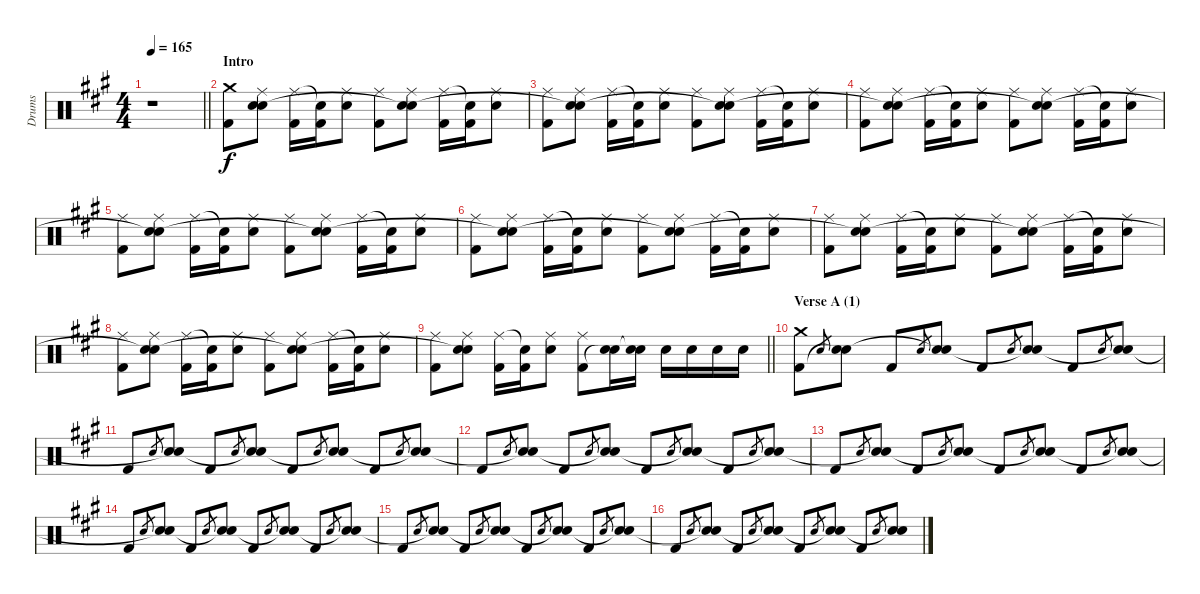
\track ("Drums" "Drums") {instrument percussion}
\staff {score}
\articulation defaults
\ts (4 4)
\tempo 165
\clef neutral
\barLineRight lightlight
\ks f#minor
r.1{dy f} |
\section ("" "Intro")
("Crash medium (hit)" "Kick (hit) 2").8 ("Ride (middle)" "Electric Snare (hit)" "Snare (hit)").8 ("Ride (middle)" "Kick (hit) 2").16 ("Snare (hit)"{t} "Kick (hit) 2").16 ("Ride (middle)" "Electric Snare (hit)").8 ("Ride (middle)" "Kick (hit) 2").8 ("Ride (middle)" "Electric Snare (hit)" "Snare (hit)"{t}).8 ("Ride (middle)" "Kick (hit) 2").16 ("Snare (hit)"{t} "Kick (hit) 2").16 ("Ride (middle)" "Electric Snare (hit)").8 |
("Ride (middle)" "Kick (hit) 2").8 ("Ride (middle)" "Electric Snare (hit)" "Snare (hit)"{t}).8 ("Ride (middle)" "Kick (hit) 2").16 ("Snare (hit)"{t} "Kick (hit) 2").16 ("Ride (middle)" "Electric Snare (hit)").8 ("Ride (middle)" "Kick (hit) 2").8 ("Ride (middle)" "Electric Snare (hit)" "Snare (hit)"{t}).8 ("Ride (middle)" "Kick (hit) 2").16 ("Snare (hit)"{t} "Kick (hit) 2").16 ("Ride (middle)" "Electric Snare (hit)").8 |
("Ride (middle)" "Kick (hit) 2").8 ("Ride (middle)" "Electric Snare (hit)" "Snare (hit)"{t}).8 ("Ride (middle)" "Kick (hit) 2").16 ("Snare (hit)"{t} "Kick (hit) 2").16 ("Ride (middle)" "Electric Snare (hit)").8 ("Ride (middle)" "Kick (hit) 2").8 ("Ride (middle)" "Electric Snare (hit)" "Snare (hit)"{t}).8 ("Ride (middle)" "Kick (hit) 2").16 ("Snare (hit)"{t} "Kick (hit) 2").16 ("Ride (middle)" "Electric Snare (hit)").8 |
("Ride (middle)" "Kick (hit) 2").8 ("Ride (middle)" "Electric Snare (hit)" "Snare (hit)"{t}).8 ("Ride (middle)" "Kick (hit) 2").16 ("Snare (hit)"{t} "Kick (hit) 2").16 ("Ride (middle)" "Electric Snare (hit)").8 ("Ride (middle)" "Kick (hit) 2").8 ("Ride (middle)" "Electric Snare (hit)" "Snare (hit)"{t}).8 ("Ride (middle)" "Kick (hit) 2").16 ("Snare (hit)"{t} "Kick (hit) 2").16 ("Ride (middle)" "Electric Snare (hit)").8 |
("Ride (middle)" "Kick (hit) 2").8 ("Ride (middle)" "Electric Snare (hit)" "Snare (hit)"{t}).8 ("Ride (middle)" "Kick (hit) 2").16 ("Snare (hit)"{t} "Kick (hit) 2").16 ("Ride (middle)" "Electric Snare (hit)").8 ("Ride (middle)" "Kick (hit) 2").8 ("Ride (middle)" "Electric Snare (hit)" "Snare (hit)"{t}).8 ("Ride (middle)" "Kick (hit) 2").16 ("Snare (hit)"{t} "Kick (hit) 2").16 ("Ride (middle)" "Electric Snare (hit)").8 |
("Ride (middle)" "Kick (hit) 2").8 ("Ride (middle)" "Electric Snare (hit)" "Snare (hit)"{t}).8 ("Ride (middle)" "Kick (hit) 2").16 ("Snare (hit)"{t} "Kick (hit) 2").16 ("Ride (middle)" "Electric Snare (hit)").8 ("Ride (middle)" "Kick (hit) 2").8 ("Ride (middle)" "Electric Snare (hit)" "Snare (hit)"{t}).8 ("Ride (middle)" "Kick (hit) 2").16 ("Snare (hit)"{t} "Kick (hit) 2").16 ("Ride (middle)" "Electric Snare (hit)").8 |
("Ride (middle)" "Kick (hit) 2").8 ("Ride (middle)" "Electric Snare (hit)" "Snare (hit)"{t}).8 ("Ride (middle)" "Kick (hit) 2").16 ("Snare (hit)"{t} "Kick (hit) 2").16 ("Ride (middle)" "Electric Snare (hit)").8 ("Ride (middle)" "Kick (hit) 2").8 ("Ride (middle)" "Electric Snare (hit)" "Snare (hit)"{t}).8 ("Ride (middle)" "Kick (hit) 2").16 ("Snare (hit)"{t} "Kick (hit) 2").16 ("Ride (middle)" "Electric Snare (hit)").8 |
\barLineRight lightlight
("Ride (middle)" "Kick (hit) 2").8 ("Ride (middle)" "Electric Snare (hit)" "Snare (hit)"{t}).8 ("Ride (middle)" "Kick (hit) 2").16 ("Snare (hit)"{t} "Kick (hit) 2").16 ("Ride (middle)" "Electric Snare (hit)").8 ("Ride (middle)" "Kick (hit) 2").8 ("Electric Snare (hit)" "Snare (hit)"{t}).16 ("Electric Snare (hit)" "Snare (hit)"{t}).16 "Electric Snare (hit)".16 "Electric Snare (hit)".16 "Electric Snare (hit)".16 "Electric Snare (hit)".16 |
\section ("" "Verse A (1)")
("Crash medium (hit)" "Kick (hit) 2").8 "Electric Snare (hit)".8{gr} ("Electric Snare (hit)" "Snare (hit)"{t}).8 "Kick (hit) 2".8 "Electric Snare (hit)".8{gr} ("Electric Snare (hit)" "Snare (hit)"{t}).8 "Kick (hit) 2".8 "Electric Snare (hit)".8{gr} ("Electric Snare (hit)" "Snare (hit)"{t}).8 "Kick (hit) 2".8 "Electric Snare (hit)".8{gr} ("Electric Snare (hit)" "Snare (hit)"{t}).8 |
"Kick (hit) 2".8 "Electric Snare (hit)".8{gr} ("Electric Snare (hit)" "Snare (hit)"{t}).8 "Kick (hit) 2".8 "Electric Snare (hit)".8{gr} ("Electric Snare (hit)" "Snare (hit)"{t}).8 "Kick (hit) 2".8 "Electric Snare (hit)".8{gr} ("Electric Snare (hit)" "Snare (hit)"{t}).8 "Kick (hit) 2".8 "Electric Snare (hit)".8{gr} ("Electric Snare (hit)" "Snare (hit)"{t}).8 |
"Kick (hit) 2".8 "Electric Snare (hit)".8{gr} ("Electric Snare (hit)" "Snare (hit)"{t}).8 "Kick (hit) 2".8 "Electric Snare (hit)".8{gr} ("Electric Snare (hit)" "Snare (hit)"{t}).8 "Kick (hit) 2".8 "Electric Snare (hit)".8{gr} ("Electric Snare (hit)" "Snare (hit)"{t}).8 "Kick (hit) 2".8 "Electric Snare (hit)".8{gr} ("Electric Snare (hit)" "Snare (hit)"{t}).8 |
"Kick (hit) 2".8 "Electric Snare (hit)".8{gr} ("Electric Snare (hit)" "Snare (hit)"{t}).8 "Kick (hit) 2".8 "Electric Snare (hit)".8{gr} ("Electric Snare (hit)" "Snare (hit)"{t}).8 "Kick (hit) 2".8 "Electric Snare (hit)".8{gr} ("Electric Snare (hit)" "Snare (hit)"{t}).8 "Kick (hit) 2".8 "Electric Snare (hit)".8{gr} ("Electric Snare (hit)" "Snare (hit)"{t}).8 |
"Kick (hit) 2".8 "Electric Snare (hit)".8{gr} ("Electric Snare (hit)" "Snare (hit)"{t}).8 "Kick (hit) 2".8 "Electric Snare (hit)".8{gr} ("Electric Snare (hit)" "Snare (hit)"{t}).8 "Kick (hit) 2".8 "Electric Snare (hit)".8{gr} ("Electric Snare (hit)" "Snare (hit)"{t}).8 "Kick (hit) 2".8 "Electric Snare (hit)".8{gr} ("Electric Snare (hit)" "Snare (hit)"{t}).8 |
"Kick (hit) 2".8 "Electric Snare (hit)".8{gr} ("Electric Snare (hit)" "Snare (hit)"{t}).8 "Kick (hit) 2".8 "Electric Snare (hit)".8{gr} ("Electric Snare (hit)" "Snare (hit)"{t}).8 "Kick (hit) 2".8 "Electric Snare (hit)".8{gr} ("Electric Snare (hit)" "Snare (hit)"{t}).8 "Kick (hit) 2".8 "Electric Snare (hit)".8{gr} ("Electric Snare (hit)" "Snare (hit)"{t}).8 |
"Kick (hit) 2".8 "Electric Snare (hit)".8{gr} ("Electric Snare (hit)" "Snare (hit)"{t}).8 "Kick (hit) 2".8 "Electric Snare (hit)".8{gr} ("Electric Snare (hit)" "Snare (hit)"{t}).8 "Kick (hit) 2".8 "Electric Snare (hit)".8{gr} ("Electric Snare (hit)" "Snare (hit)"{t}).8 "Kick (hit) 2".8 "Electric Snare (hit)".8{gr} ("Electric Snare (hit)" "Snare (hit)"{t}).8
